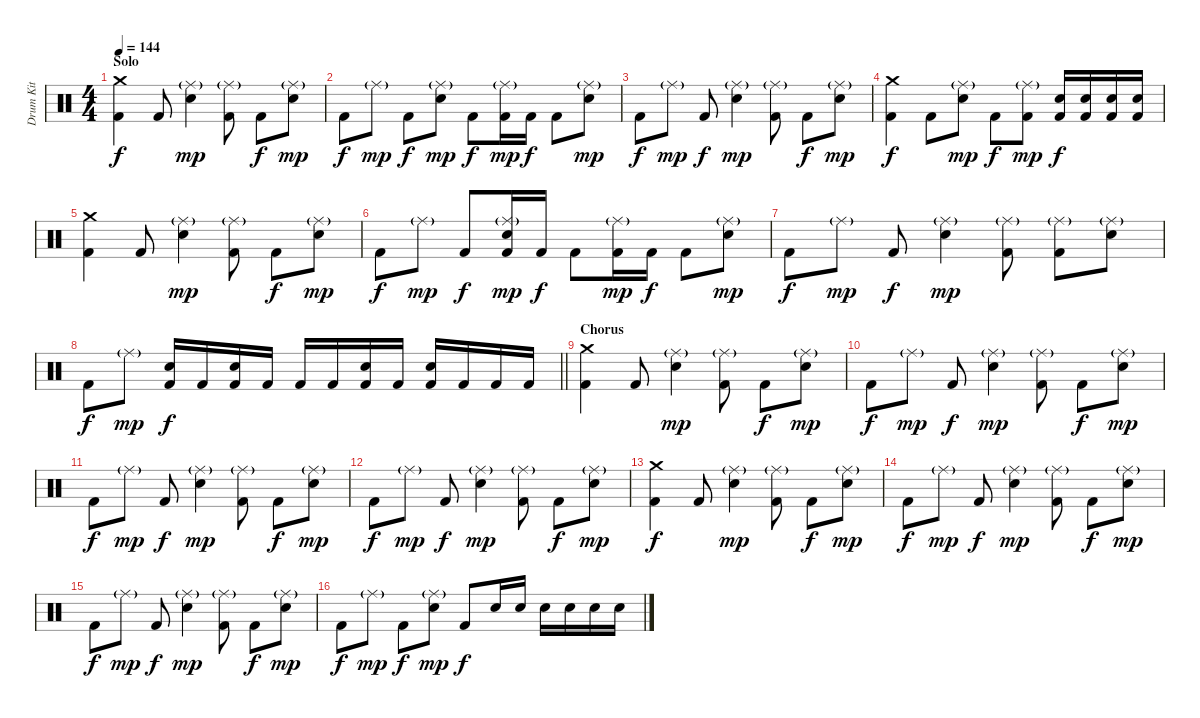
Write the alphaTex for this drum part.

\track ("Drum Kit" "Drum Kit") {instrument percussion}
\staff {score}
\articulation defaults
\ts (4 4)
\section ("" "Solo")
\tempo 144
\clef neutral
\ks c
("Crash medium (hit)" "Kick (hit) 2").4{dy f} "Kick (hit) 2".8 ("Ride (middle)"{g} "Electric Snare (hit)").4{dy mp} ("Ride (middle)"{g} "Kick (hit) 2").8 "Kick (hit) 2".8{dy f} ("Ride (middle)"{g} "Electric Snare (hit)").8{dy mp} |
"Kick (hit) 2".8{dy f} "Ride (middle)"{g}.8{dy mp} "Kick (hit) 2".8{dy f} ("Ride (middle)"{g} "Electric Snare (hit)").8{dy mp} "Kick (hit) 2".8{dy f} ("Ride (middle)"{g} "Kick (hit) 2").16{dy mp} "Kick (hit) 2".16{dy f} "Kick (hit) 2".8 ("Ride (middle)"{g} "Electric Snare (hit)").8{dy mp} |
"Kick (hit) 2".8{dy f} "Ride (middle)"{g}.8{dy mp} "Kick (hit) 2".8{dy f} ("Ride (middle)"{g} "Electric Snare (hit)").4{dy mp} ("Ride (middle)"{g} "Kick (hit) 2").8 "Kick (hit) 2".8{dy f} ("Ride (middle)"{g} "Electric Snare (hit)").8{dy mp} |
("Crash medium (hit)" "Kick (hit) 2").4{dy f} "Kick (hit) 2".8 ("Ride (middle)"{g} "Electric Snare (hit)").8{dy mp} "Kick (hit) 2".8{dy f} ("Ride (middle)"{g} "Kick (hit) 2").8{dy mp} ("Electric Snare (hit)" "Kick (hit) 2").16{dy f} ("Electric Snare (hit)" "Kick (hit) 2").16 ("Electric Snare (hit)" "Kick (hit) 2").16 ("Electric Snare (hit)" "Kick (hit) 2").16 |
("Crash medium (hit)" "Kick (hit) 2").4 "Kick (hit) 2".8 ("Ride (middle)"{g} "Electric Snare (hit)").4{dy mp} ("Ride (middle)"{g} "Kick (hit) 2").8 "Kick (hit) 2".8{dy f} ("Ride (middle)"{g} "Electric Snare (hit)").8{dy mp} |
"Kick (hit) 2".8{dy f} "Ride (middle)"{g}.8{dy mp} "Kick (hit) 2".8{dy f} ("Ride (middle)"{g} "Electric Snare (hit)" "Kick (hit) 2").16{dy mp} "Kick (hit) 2".16{dy f} "Kick (hit) 2".8 ("Ride (middle)"{g} "Kick (hit) 2").16{dy mp} "Kick (hit) 2".16{dy f} "Kick (hit) 2".8 ("Ride (middle)"{g} "Electric Snare (hit)").8{dy mp} |
"Kick (hit) 2".8{dy f} "Ride (middle)"{g}.8{dy mp} "Kick (hit) 2".8{dy f} ("Ride (middle)"{g} "Electric Snare (hit)").4{dy mp} ("Ride (middle)"{g} "Kick (hit) 2").8 ("Ride (middle)"{g} "Kick (hit) 2").8 ("Ride (middle)"{g} "Electric Snare (hit)").8 |
\barLineRight lightlight "Kick (hit) 2".8{dy f} "Ride (middle)"{g}.8{dy mp}
("Electric Snare (hit)" "Kick (hit) 2").16{dy f} "Kick (hit) 2".16 ("Electric Snare (hit)" "Kick (hit) 2").16 "Kick (hit) 2".16 "Kick (hit) 2".16 "Kick (hit) 2".16 ("Electric Snare (hit)" "Kick (hit) 2").16 "Kick (hit) 2".16 ("Electric Snare (hit)" "Kick (hit) 2").16 "Kick (hit) 2".16 "Kick (hit) 2".16 "Kick (hit) 2".16 |
\section ("" "Chorus")
("Crash medium (hit)" "Kick (hit) 2").4 "Kick (hit) 2".8 ("Ride (middle)"{g} "Electric Snare (hit)").4{dy mp} ("Ride (middle)"{g} "Kick (hit) 2").8 "Kick (hit) 2".8{dy f} ("Ride (middle)"{g} "Electric Snare (hit)").8{dy mp} |
"Kick (hit) 2".8{dy f} "Ride (middle)"{g}.8{dy mp} "Kick (hit) 2".8{dy f} ("Ride (middle)"{g} "Electric Snare (hit)").4{dy mp} ("Ride (middle)"{g} "Kick (hit) 2").8 "Kick (hit) 2".8{dy f} ("Ride (middle)"{g} "Electric Snare (hit)").8{dy mp} |
"Kick (hit) 2".8{dy f} "Ride (middle)"{g}.8{dy mp} "Kick (hit) 2".8{dy f} ("Ride (middle)"{g} "Electric Snare (hit)").4{dy mp} ("Ride (middle)"{g} "Kick (hit) 2").8 "Kick (hit) 2".8{dy f} ("Ride (middle)"{g} "Electric Snare (hit)").8{dy mp} |
"Kick (hit) 2".8{dy f} "Ride (middle)"{g}.8{dy mp} "Kick (hit) 2".8{dy f} ("Ride (middle)"{g} "Electric Snare (hit)").4{dy mp} ("Ride (middle)"{g} "Kick (hit) 2").8 "Kick (hit) 2".8{dy f} ("Ride (middle)"{g} "Electric Snare (hit)").8{dy mp} |
("Crash medium (hit)" "Kick (hit) 2").4{dy f} "Kick (hit) 2".8 ("Ride (middle)"{g} "Electric Snare (hit)").4{dy mp} ("Ride (middle)"{g} "Kick (hit) 2").8 "Kick (hit) 2".8{dy f} ("Ride (middle)"{g} "Electric Snare (hit)").8{dy mp} |
"Kick (hit) 2".8{dy f} "Ride (middle)"{g}.8{dy mp} "Kick (hit) 2".8{dy f} ("Ride (middle)"{g} "Electric Snare (hit)").4{dy mp} ("Ride (middle)"{g} "Kick (hit) 2").8 "Kick (hit) 2".8{dy f} ("Ride (middle)"{g} "Electric Snare (hit)").8{dy mp} |
"Kick (hit) 2".8{dy f} "Ride (middle)"{g}.8{dy mp} "Kick (hit) 2".8{dy f} ("Ride (middle)"{g} "Electric Snare (hit)").4{dy mp} ("Ride (middle)"{g} "Kick (hit) 2").8 "Kick (hit) 2".8{dy f} ("Ride (middle)"{g} "Electric Snare (hit)").8{dy mp} |
"Kick (hit) 2".8{dy f} "Ride (middle)"{g}.8{dy mp} "Kick (hit) 2".8{dy f} ("Ride (middle)"{g} "Electric Snare (hit)").8{dy mp} "Kick (hit) 2".8{dy f} "Electric Snare (hit)".16 "Electric Snare (hit)".16 "Electric Snare (hit)".16 "Electric Snare (hit)".16 "Electric Snare (hit)".16 "Electric Snare (hit)".16
